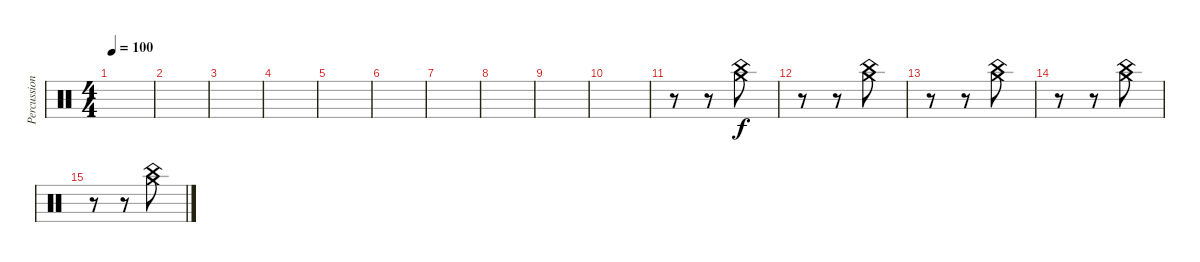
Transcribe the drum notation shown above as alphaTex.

\track ("Percussion" "Percussion") {instrument percussion}
\staff {score}
\articulation defaults
\ts (4 4)
\tempo 100
\clef neutral
\ks c
|
|
|
|
|
|
|
|
|
|
r.8 r.8 ("Crash medium (hit)" "China (hit)").8{dy f} |
r.8 r.8 ("Crash medium (hit)" "China (hit)").8 |
r.8 r.8 ("Crash medium (hit)" "China (hit)").8 |
r.8 r.8 ("Crash medium (hit)" "China (hit)").8 |
r.8 r.8 ("Crash medium (hit)" "China (hit)").8
